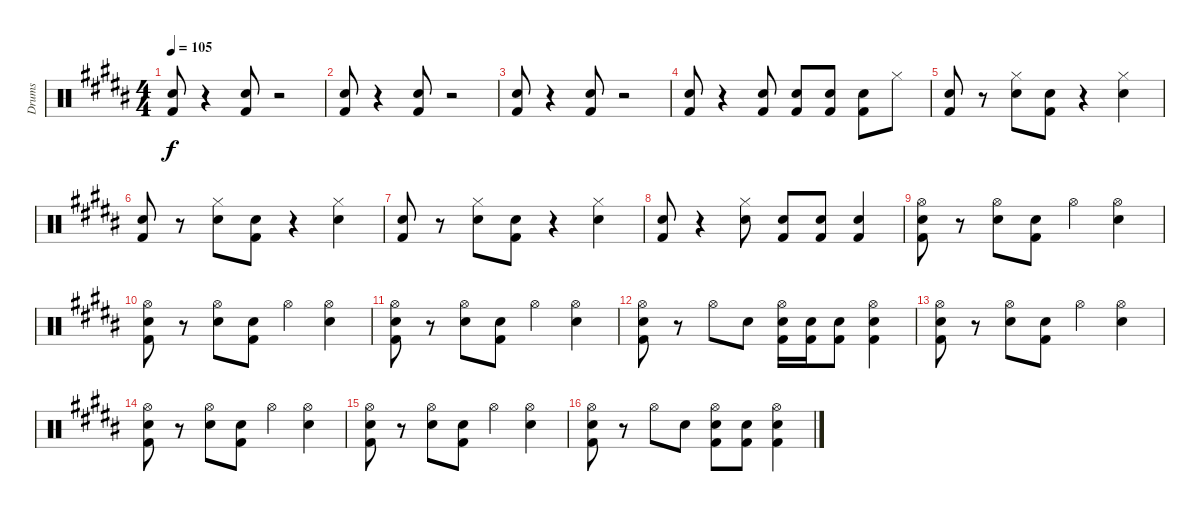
\track ("Drums" "Drums") {instrument percussion}
\staff {score}
\articulation defaults
\ts (4 4)
\tempo 105
\clef neutral
\ks b
("Electric Snare (hit)" "Kick (hit) 2").8{dy f} r.4 ("Electric Snare (hit)" "Kick (hit) 2").8 r.2 |
("Electric Snare (hit)" "Kick (hit) 2").8 r.4 ("Electric Snare (hit)" "Kick (hit) 2").8 r.2 |
("Electric Snare (hit)" "Kick (hit) 2").8 r.4 ("Electric Snare (hit)" "Kick (hit) 2").8 r.2 |
("Electric Snare (hit)" "Kick (hit) 2").8 r.4 ("Electric Snare (hit)" "Kick (hit) 2").8 ("Electric Snare (hit)" "Kick (hit) 2").8 ("Electric Snare (hit)" "Kick (hit) 2").8 ("Electric Snare (hit)" "Kick (hit) 2").8 "Hi-Hat (closed)".8 |
("Electric Snare (hit)" "Kick (hit) 2").8 r.8 ("Hi-Hat (closed)" "Electric Snare (hit)").8 ("Electric Snare (hit)" "Kick (hit) 2").8 r.4 ("Hi-Hat (closed)" "Electric Snare (hit)").4 |
("Electric Snare (hit)" "Kick (hit) 2").8 r.8 ("Hi-Hat (closed)" "Electric Snare (hit)").8 ("Electric Snare (hit)" "Kick (hit) 2").8 r.4 ("Hi-Hat (closed)" "Electric Snare (hit)").4 |
("Electric Snare (hit)" "Kick (hit) 2").8 r.8 ("Hi-Hat (closed)" "Electric Snare (hit)").8 ("Electric Snare (hit)" "Kick (hit) 2").8 r.4 ("Hi-Hat (closed)" "Electric Snare (hit)").4 |
("Electric Snare (hit)" "Kick (hit) 2").8 r.4 ("Hi-Hat (closed)" "Electric Snare (hit)").8 ("Electric Snare (hit)" "Kick (hit) 2").8 ("Electric Snare (hit)" "Kick (hit) 2").8 ("Electric Snare (hit)" "Kick (hit) 2").4 |
("Hi-Hat (open)" "Electric Snare (hit)" "Kick (hit) 2").8 r.8 ("Hi-Hat (open)" "Electric Snare (hit)").8 ("Electric Snare (hit)" "Kick (hit) 2").8 "Hi-Hat (open)".4 ("Hi-Hat (open)" "Electric Snare (hit)").4 |
("Hi-Hat (open)" "Electric Snare (hit)" "Kick (hit) 2").8 r.8 ("Hi-Hat (open)" "Electric Snare (hit)").8 ("Electric Snare (hit)" "Kick (hit) 2").8 "Hi-Hat (open)".4 ("Hi-Hat (open)" "Electric Snare (hit)").4 |
("Hi-Hat (open)" "Electric Snare (hit)" "Kick (hit) 2").8 r.8 ("Hi-Hat (open)" "Electric Snare (hit)").8 ("Electric Snare (hit)" "Kick (hit) 2").8 "Hi-Hat (open)".4 ("Hi-Hat (open)" "Electric Snare (hit)").4 |
("Hi-Hat (open)" "Electric Snare (hit)" "Kick (hit) 2").8 r.8 "Hi-Hat (open)".8 "Electric Snare (hit)".8 ("Hi-Hat (open)" "Electric Snare (hit)" "Kick (hit) 2").16 ("Electric Snare (hit)" "Kick (hit) 2").16 ("Electric Snare (hit)" "Kick (hit) 2").8 ("Hi-Hat (open)" "Electric Snare (hit)" "Kick (hit) 2").4 |
("Hi-Hat (open)" "Electric Snare (hit)" "Kick (hit) 2").8 r.8 ("Hi-Hat (open)" "Electric Snare (hit)").8 ("Electric Snare (hit)" "Kick (hit) 2").8 "Hi-Hat (open)".4 ("Hi-Hat (open)" "Electric Snare (hit)").4 |
("Hi-Hat (open)" "Electric Snare (hit)" "Kick (hit) 2").8 r.8 ("Hi-Hat (open)" "Electric Snare (hit)").8 ("Electric Snare (hit)" "Kick (hit) 2").8 "Hi-Hat (open)".4 ("Hi-Hat (open)" "Electric Snare (hit)").4 |
("Hi-Hat (open)" "Electric Snare (hit)" "Kick (hit) 2").8 r.8 ("Hi-Hat (open)" "Electric Snare (hit)").8 ("Electric Snare (hit)" "Kick (hit) 2").8 "Hi-Hat (open)".4 ("Hi-Hat (open)" "Electric Snare (hit)").4 |
("Hi-Hat (open)" "Electric Snare (hit)" "Kick (hit) 2").8 r.8 "Hi-Hat (open)".8 "Electric Snare (hit)".8 ("Hi-Hat (open)" "Electric Snare (hit)" "Kick (hit) 2").8 ("Electric Snare (hit)" "Kick (hit) 2").8 ("Hi-Hat (open)" "Electric Snare (hit)" "Kick (hit) 2").4
